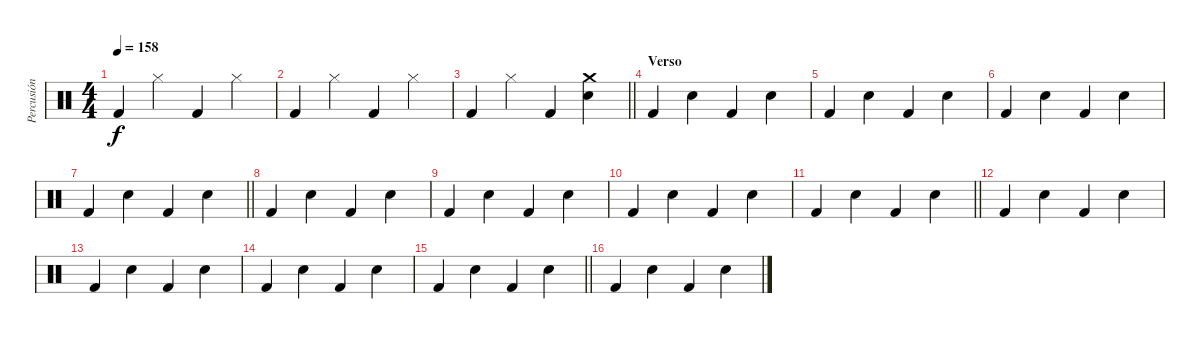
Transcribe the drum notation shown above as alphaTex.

\track ("Percusión" "Percusión") {instrument percussion}
\staff {score}
\articulation defaults
\ts (4 4)
\tempo 158
\clef neutral
\ks c "Kick (hit) 2".4{dy f} "Hi-Hat (closed)".4 "Kick (hit) 2".4 "Hi-Hat (closed)".4
|
"Kick (hit) 2".4 "Hi-Hat (closed)".4 "Kick (hit) 2".4 "Hi-Hat (closed)".4 |
\barLineRight lightlight "Kick (hit) 2".4 "Hi-Hat (closed)".4 "Kick (hit) 2".4
("Crash medium (hit)" "Electric Snare (hit)").4 |
\section ("" "Verso")
"Kick (hit) 2".4{volume 16} "Electric Snare (hit)".4 "Kick (hit) 2".4 "Electric Snare (hit)".4 |
"Kick (hit) 2".4 "Electric Snare (hit)".4 "Kick (hit) 2".4 "Electric Snare (hit)".4 |
"Kick (hit) 2".4{volume 16} "Electric Snare (hit)".4 "Kick (hit) 2".4 "Electric Snare (hit)".4 |
\barLineRight lightlight "Kick (hit) 2".4 "Electric Snare (hit)".4 "Kick (hit) 2".4 "Electric Snare (hit)".4
|
"Kick (hit) 2".4{volume 16} "Electric Snare (hit)".4 "Kick (hit) 2".4 "Electric Snare (hit)".4 |
"Kick (hit) 2".4 "Electric Snare (hit)".4 "Kick (hit) 2".4 "Electric Snare (hit)".4 |
"Kick (hit) 2".4{volume 16} "Electric Snare (hit)".4 "Kick (hit) 2".4 "Electric Snare (hit)".4 |
\barLineRight lightlight "Kick (hit) 2".4 "Electric Snare (hit)".4 "Kick (hit) 2".4 "Electric Snare (hit)".4
|
"Kick (hit) 2".4{volume 16} "Electric Snare (hit)".4 "Kick (hit) 2".4 "Electric Snare (hit)".4 |
"Kick (hit) 2".4 "Electric Snare (hit)".4 "Kick (hit) 2".4 "Electric Snare (hit)".4 |
"Kick (hit) 2".4{volume 16} "Electric Snare (hit)".4 "Kick (hit) 2".4 "Electric Snare (hit)".4 |
\barLineRight lightlight "Kick (hit) 2".4 "Electric Snare (hit)".4 "Kick (hit) 2".4 "Electric Snare (hit)".4
|
"Kick (hit) 2".4{volume 16} "Electric Snare (hit)".4 "Kick (hit) 2".4 "Electric Snare (hit)".4
